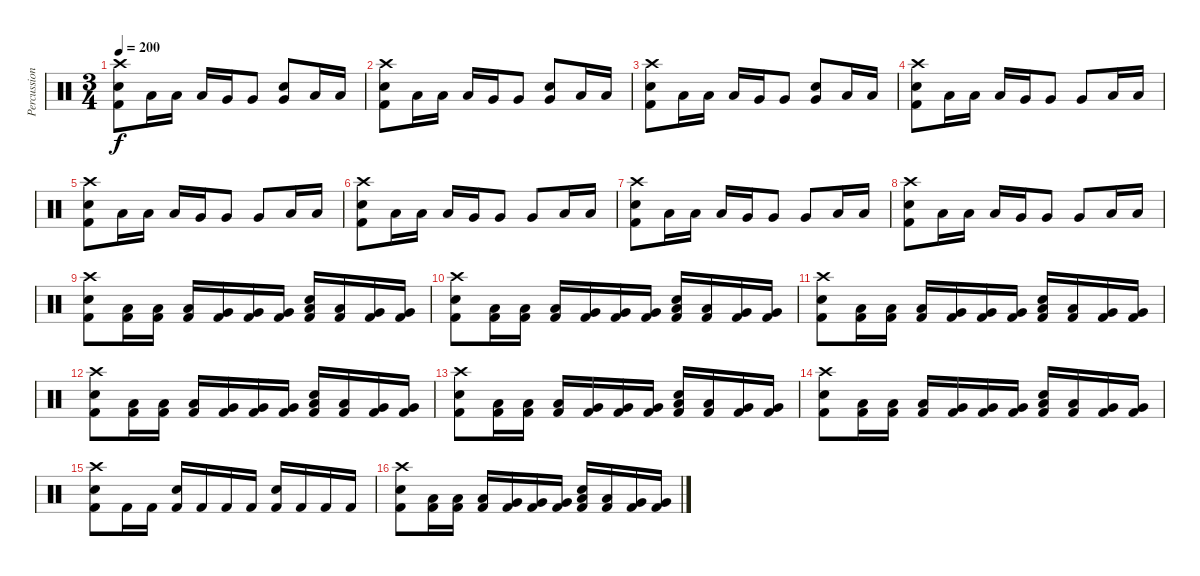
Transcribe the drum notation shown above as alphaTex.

\track ("Percussion" "Percussion") {instrument percussion}
\staff {score}
\articulation defaults
\ts (3 4)
\tempo 200
\clef neutral
\ks c
("Crash high (hit)" "Snare (hit) 2" "Kick (hit) 2").8{dy f} "Low Tom (hit)".16 "Low Tom (hit)".16 "Low Tom (hit)".16 "Very Low Tom (hit)".16 "Very Low Tom (hit)".8 ("Very Low Tom (hit)" "Snare (hit) 2").8 "Low Tom (hit)".16 "Low Tom (hit)".16 |
("Crash high (hit)" "Snare (hit) 2" "Kick (hit) 2").8 "Low Tom (hit)".16 "Low Tom (hit)".16 "Low Tom (hit)".16 "Very Low Tom (hit)".16 "Very Low Tom (hit)".8 ("Very Low Tom (hit)" "Snare (hit) 2").8 "Low Tom (hit)".16 "Low Tom (hit)".16 |
("Crash high (hit)" "Snare (hit) 2" "Kick (hit) 2").8 "Low Tom (hit)".16 "Low Tom (hit)".16 "Low Tom (hit)".16 "Very Low Tom (hit)".16 "Very Low Tom (hit)".8 ("Very Low Tom (hit)" "Snare (hit) 2").8 "Low Tom (hit)".16 "Low Tom (hit)".16 |
("Crash high (hit)" "Snare (hit) 2" "Kick (hit) 2").8 "Low Tom (hit)".16 "Low Tom (hit)".16 "Low Tom (hit)".16 "Very Low Tom (hit)".16 "Very Low Tom (hit)".8 "Very Low Tom (hit)".8 "Low Tom (hit)".16 "Low Tom (hit)".16 |
("Crash high (hit)" "Snare (hit) 2" "Kick (hit) 2").8 "Low Tom (hit)".16 "Low Tom (hit)".16 "Low Tom (hit)".16 "Very Low Tom (hit)".16 "Very Low Tom (hit)".8 "Very Low Tom (hit)".8 "Low Tom (hit)".16 "Low Tom (hit)".16 |
("Crash high (hit)" "Snare (hit) 2" "Kick (hit) 2").8 "Low Tom (hit)".16 "Low Tom (hit)".16 "Low Tom (hit)".16 "Very Low Tom (hit)".16 "Very Low Tom (hit)".8 "Very Low Tom (hit)".8 "Low Tom (hit)".16 "Low Tom (hit)".16 |
("Crash high (hit)" "Snare (hit) 2" "Kick (hit) 2").8 "Low Tom (hit)".16 "Low Tom (hit)".16 "Low Tom (hit)".16 "Very Low Tom (hit)".16 "Very Low Tom (hit)".8 "Very Low Tom (hit)".8 "Low Tom (hit)".16 "Low Tom (hit)".16 |
("Crash high (hit)" "Snare (hit) 2" "Kick (hit) 2").8 "Low Tom (hit)".16 "Low Tom (hit)".16 "Low Tom (hit)".16 "Very Low Tom (hit)".16 "Very Low Tom (hit)".8 "Very Low Tom (hit)".8 "Low Tom (hit)".16 "Low Tom (hit)".16 |
("Crash high (hit)" "Snare (hit) 2" "Kick (hit) 2").8 ("Low Tom (hit)" "Kick (hit) 2").16 ("Low Tom (hit)" "Kick (hit) 2").16 ("Low Tom (hit)" "Kick (hit) 2").16 ("Very Low Tom (hit)" "Kick (hit) 2").16 ("Very Low Tom (hit)" "Kick (hit) 2").16 ("Very Low Tom (hit)" "Kick (hit) 2").16 ("Low Tom (hit)" "Snare (hit) 2" "Kick (hit) 2").16 ("Low Tom (hit)" "Kick (hit) 2").16 ("Very Low Tom (hit)" "Kick (hit) 2").16 ("Very Low Tom (hit)" "Kick (hit) 2").16 |
("Crash high (hit)" "Snare (hit) 2" "Kick (hit) 2").8 ("Low Tom (hit)" "Kick (hit) 2").16 ("Low Tom (hit)" "Kick (hit) 2").16 ("Low Tom (hit)" "Kick (hit) 2").16 ("Very Low Tom (hit)" "Kick (hit) 2").16 ("Very Low Tom (hit)" "Kick (hit) 2").16 ("Very Low Tom (hit)" "Kick (hit) 2").16 ("Low Tom (hit)" "Snare (hit) 2" "Kick (hit) 2").16 ("Low Tom (hit)" "Kick (hit) 2").16 ("Very Low Tom (hit)" "Kick (hit) 2").16 ("Very Low Tom (hit)" "Kick (hit) 2").16 |
("Crash high (hit)" "Snare (hit) 2" "Kick (hit) 2").8 ("Low Tom (hit)" "Kick (hit) 2").16 ("Low Tom (hit)" "Kick (hit) 2").16 ("Low Tom (hit)" "Kick (hit) 2").16 ("Very Low Tom (hit)" "Kick (hit) 2").16 ("Very Low Tom (hit)" "Kick (hit) 2").16 ("Very Low Tom (hit)" "Kick (hit) 2").16 ("Low Tom (hit)" "Snare (hit) 2" "Kick (hit) 2").16 ("Low Tom (hit)" "Kick (hit) 2").16 ("Very Low Tom (hit)" "Kick (hit) 2").16 ("Very Low Tom (hit)" "Kick (hit) 2").16 |
("Crash high (hit)" "Snare (hit) 2" "Kick (hit) 2").8 ("Low Tom (hit)" "Kick (hit) 2").16 ("Low Tom (hit)" "Kick (hit) 2").16 ("Low Tom (hit)" "Kick (hit) 2").16 ("Very Low Tom (hit)" "Kick (hit) 2").16 ("Very Low Tom (hit)" "Kick (hit) 2").16 ("Very Low Tom (hit)" "Kick (hit) 2").16 ("Low Tom (hit)" "Snare (hit) 2" "Kick (hit) 2").16 ("Low Tom (hit)" "Kick (hit) 2").16 ("Very Low Tom (hit)" "Kick (hit) 2").16 ("Very Low Tom (hit)" "Kick (hit) 2").16 |
("Crash high (hit)" "Snare (hit) 2" "Kick (hit) 2").8 ("Low Tom (hit)" "Kick (hit) 2").16 ("Low Tom (hit)" "Kick (hit) 2").16 ("Low Tom (hit)" "Kick (hit) 2").16 ("Very Low Tom (hit)" "Kick (hit) 2").16 ("Very Low Tom (hit)" "Kick (hit) 2").16 ("Very Low Tom (hit)" "Kick (hit) 2").16 ("Low Tom (hit)" "Snare (hit) 2" "Kick (hit) 2").16 ("Low Tom (hit)" "Kick (hit) 2").16 ("Very Low Tom (hit)" "Kick (hit) 2").16 ("Very Low Tom (hit)" "Kick (hit) 2").16 |
("Crash high (hit)" "Snare (hit) 2" "Kick (hit) 2").8 ("Low Tom (hit)" "Kick (hit) 2").16 ("Low Tom (hit)" "Kick (hit) 2").16 ("Low Tom (hit)" "Kick (hit) 2").16 ("Very Low Tom (hit)" "Kick (hit) 2").16 ("Very Low Tom (hit)" "Kick (hit) 2").16 ("Very Low Tom (hit)" "Kick (hit) 2").16 ("Low Tom (hit)" "Snare (hit) 2" "Kick (hit) 2").16 ("Low Tom (hit)" "Kick (hit) 2").16 ("Very Low Tom (hit)" "Kick (hit) 2").16 ("Very Low Tom (hit)" "Kick (hit) 2").16 |
("Crash high (hit)" "Snare (hit) 2" "Kick (hit) 2").8 "Kick (hit) 2".16 "Kick (hit) 2".16 ("Snare (hit) 2" "Kick (hit) 2").16 "Kick (hit) 2".16 "Kick (hit) 2".16 "Kick (hit) 2".16 ("Snare (hit) 2" "Kick (hit) 2").16 "Kick (hit) 2".16 "Kick (hit) 2".16 "Kick (hit) 2".16 |
("Crash high (hit)" "Snare (hit) 2" "Kick (hit) 2").8 ("Low Tom (hit)" "Kick (hit) 2").16 ("Low Tom (hit)" "Kick (hit) 2").16 ("Low Tom (hit)" "Kick (hit) 2").16 ("Very Low Tom (hit)" "Kick (hit) 2").16 ("Very Low Tom (hit)" "Kick (hit) 2").16 ("Very Low Tom (hit)" "Kick (hit) 2").16 ("Low Tom (hit)" "Snare (hit) 2" "Kick (hit) 2").16 ("Low Tom (hit)" "Kick (hit) 2").16 ("Very Low Tom (hit)" "Kick (hit) 2").16 ("Very Low Tom (hit)" "Kick (hit) 2").16
